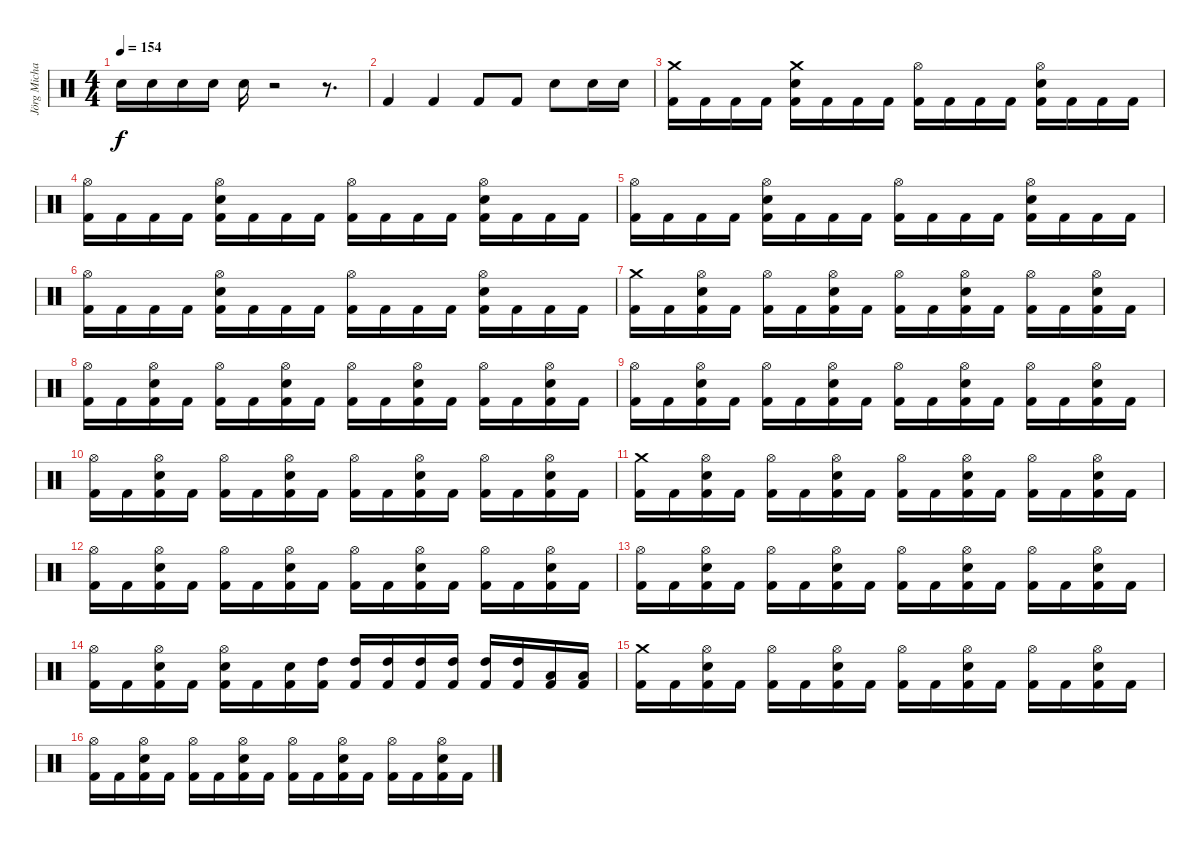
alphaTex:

\track ("Jörg Michael" "Jörg Micha") {instrument percussion}
\staff {score}
\articulation defaults
\ts (4 4)
\tempo 154
\clef neutral
\ks c "Snare (hit) 2".16{dy f} "Snare (hit) 2".16 "Snare (hit) 2".16 "Snare (hit) 2".16 "Snare (hit) 2".16
r.2 r.8{d} |
"Kick (hit) 2".4 "Kick (hit) 2".4 "Kick (hit) 2".8 "Kick (hit) 2".8 "Snare (hit) 2".8 "Snare (hit) 2".16 "Snare (hit) 2".16 |
("Crash medium (hit)" "Kick (hit) 2").16 "Kick (hit) 2".16 "Kick (hit) 2".16 "Kick (hit) 2".16 ("Crash medium (hit)" "Kick (hit) 2" "Snare (hit) 2").16 "Kick (hit) 2".16 "Kick (hit) 2".16 "Kick (hit) 2".16 ("Kick (hit) 2" "Hi-Hat (open)").16 "Kick (hit) 2".16 "Kick (hit) 2".16 "Kick (hit) 2".16 ("Kick (hit) 2" "Snare (hit) 2" "Hi-Hat (open)").16 "Kick (hit) 2".16 "Kick (hit) 2".16 "Kick (hit) 2".16 |
("Hi-Hat (open)" "Kick (hit) 2").16 "Kick (hit) 2".16 "Kick (hit) 2".16 "Kick (hit) 2".16 ("Hi-Hat (open)" "Kick (hit) 2" "Snare (hit) 2").16 "Kick (hit) 2".16 "Kick (hit) 2".16 "Kick (hit) 2".16 ("Kick (hit) 2" "Hi-Hat (open)").16 "Kick (hit) 2".16 "Kick (hit) 2".16 "Kick (hit) 2".16 ("Kick (hit) 2" "Snare (hit) 2" "Hi-Hat (open)").16 "Kick (hit) 2".16 "Kick (hit) 2".16 "Kick (hit) 2".16 |
("Hi-Hat (open)" "Kick (hit) 2").16 "Kick (hit) 2".16 "Kick (hit) 2".16 "Kick (hit) 2".16 ("Hi-Hat (open)" "Kick (hit) 2" "Snare (hit) 2").16 "Kick (hit) 2".16 "Kick (hit) 2".16 "Kick (hit) 2".16 ("Kick (hit) 2" "Hi-Hat (open)").16 "Kick (hit) 2".16 "Kick (hit) 2".16 "Kick (hit) 2".16 ("Kick (hit) 2" "Snare (hit) 2" "Hi-Hat (open)").16 "Kick (hit) 2".16 "Kick (hit) 2".16 "Kick (hit) 2".16 |
("Hi-Hat (open)" "Kick (hit) 2").16 "Kick (hit) 2".16 "Kick (hit) 2".16 "Kick (hit) 2".16 ("Hi-Hat (open)" "Kick (hit) 2" "Snare (hit) 2").16 "Kick (hit) 2".16 "Kick (hit) 2".16 "Kick (hit) 2".16 ("Kick (hit) 2" "Hi-Hat (open)").16 "Kick (hit) 2".16 "Kick (hit) 2".16 "Kick (hit) 2".16 ("Kick (hit) 2" "Snare (hit) 2" "Hi-Hat (open)").16 "Kick (hit) 2".16 "Kick (hit) 2".16 "Kick (hit) 2".16 |
("Crash medium (hit)" "Kick (hit) 2").16 "Kick (hit) 2".16 ("Snare (hit) 2" "Hi-Hat (open)" "Kick (hit) 2").16 "Kick (hit) 2".16 ("Hi-Hat (open)" "Kick (hit) 2").16 "Kick (hit) 2".16 ("Snare (hit) 2" "Hi-Hat (open)" "Kick (hit) 2").16 "Kick (hit) 2".16 ("Hi-Hat (open)" "Kick (hit) 2").16 "Kick (hit) 2".16 ("Snare (hit) 2" "Hi-Hat (open)" "Kick (hit) 2").16 "Kick (hit) 2".16 ("Hi-Hat (open)" "Kick (hit) 2").16 "Kick (hit) 2".16 ("Snare (hit) 2" "Hi-Hat (open)" "Kick (hit) 2").16 "Kick (hit) 2".16 |
("Hi-Hat (open)" "Kick (hit) 2").16 "Kick (hit) 2".16 ("Snare (hit) 2" "Hi-Hat (open)" "Kick (hit) 2").16 "Kick (hit) 2".16 ("Hi-Hat (open)" "Kick (hit) 2").16 "Kick (hit) 2".16 ("Snare (hit) 2" "Hi-Hat (open)" "Kick (hit) 2").16 "Kick (hit) 2".16 ("Hi-Hat (open)" "Kick (hit) 2").16 "Kick (hit) 2".16 ("Snare (hit) 2" "Hi-Hat (open)" "Kick (hit) 2").16 "Kick (hit) 2".16 ("Hi-Hat (open)" "Kick (hit) 2").16 "Kick (hit) 2".16 ("Snare (hit) 2" "Hi-Hat (open)" "Kick (hit) 2").16 "Kick (hit) 2".16 |
("Hi-Hat (open)" "Kick (hit) 2").16 "Kick (hit) 2".16 ("Snare (hit) 2" "Hi-Hat (open)" "Kick (hit) 2").16 "Kick (hit) 2".16 ("Hi-Hat (open)" "Kick (hit) 2").16 "Kick (hit) 2".16 ("Snare (hit) 2" "Hi-Hat (open)" "Kick (hit) 2").16 "Kick (hit) 2".16 ("Hi-Hat (open)" "Kick (hit) 2").16 "Kick (hit) 2".16 ("Snare (hit) 2" "Hi-Hat (open)" "Kick (hit) 2").16 "Kick (hit) 2".16 ("Hi-Hat (open)" "Kick (hit) 2").16 "Kick (hit) 2".16 ("Snare (hit) 2" "Hi-Hat (open)" "Kick (hit) 2").16 "Kick (hit) 2".16 |
("Hi-Hat (open)" "Kick (hit) 2").16 "Kick (hit) 2".16 ("Snare (hit) 2" "Hi-Hat (open)" "Kick (hit) 2").16 "Kick (hit) 2".16 ("Hi-Hat (open)" "Kick (hit) 2").16 "Kick (hit) 2".16 ("Snare (hit) 2" "Hi-Hat (open)" "Kick (hit) 2").16 "Kick (hit) 2".16 ("Hi-Hat (open)" "Kick (hit) 2").16 "Kick (hit) 2".16 ("Snare (hit) 2" "Hi-Hat (open)" "Kick (hit) 2").16 "Kick (hit) 2".16 ("Hi-Hat (open)" "Kick (hit) 2").16 "Kick (hit) 2".16 ("Snare (hit) 2" "Hi-Hat (open)" "Kick (hit) 2").16 "Kick (hit) 2".16 |
("Crash medium (hit)" "Kick (hit) 2").16 "Kick (hit) 2".16 ("Snare (hit) 2" "Hi-Hat (open)" "Kick (hit) 2").16 "Kick (hit) 2".16 ("Hi-Hat (open)" "Kick (hit) 2").16 "Kick (hit) 2".16 ("Snare (hit) 2" "Hi-Hat (open)" "Kick (hit) 2").16 "Kick (hit) 2".16 ("Hi-Hat (open)" "Kick (hit) 2").16 "Kick (hit) 2".16 ("Snare (hit) 2" "Hi-Hat (open)" "Kick (hit) 2").16 "Kick (hit) 2".16 ("Hi-Hat (open)" "Kick (hit) 2").16 "Kick (hit) 2".16 ("Snare (hit) 2" "Hi-Hat (open)" "Kick (hit) 2").16 "Kick (hit) 2".16 |
("Hi-Hat (open)" "Kick (hit) 2").16 "Kick (hit) 2".16 ("Snare (hit) 2" "Hi-Hat (open)" "Kick (hit) 2").16 "Kick (hit) 2".16 ("Hi-Hat (open)" "Kick (hit) 2").16 "Kick (hit) 2".16 ("Snare (hit) 2" "Hi-Hat (open)" "Kick (hit) 2").16 "Kick (hit) 2".16 ("Hi-Hat (open)" "Kick (hit) 2").16 "Kick (hit) 2".16 ("Snare (hit) 2" "Hi-Hat (open)" "Kick (hit) 2").16 "Kick (hit) 2".16 ("Hi-Hat (open)" "Kick (hit) 2").16 "Kick (hit) 2".16 ("Snare (hit) 2" "Hi-Hat (open)" "Kick (hit) 2").16 "Kick (hit) 2".16 |
("Hi-Hat (open)" "Kick (hit) 2").16 "Kick (hit) 2".16 ("Snare (hit) 2" "Hi-Hat (open)" "Kick (hit) 2").16 "Kick (hit) 2".16 ("Hi-Hat (open)" "Kick (hit) 2").16 "Kick (hit) 2".16 ("Snare (hit) 2" "Hi-Hat (open)" "Kick (hit) 2").16 "Kick (hit) 2".16 ("Hi-Hat (open)" "Kick (hit) 2").16 "Kick (hit) 2".16 ("Snare (hit) 2" "Hi-Hat (open)" "Kick (hit) 2").16 "Kick (hit) 2".16 ("Hi-Hat (open)" "Kick (hit) 2").16 "Kick (hit) 2".16 ("Snare (hit) 2" "Hi-Hat (open)" "Kick (hit) 2").16 "Kick (hit) 2".16 |
("Hi-Hat (open)" "Kick (hit) 2").16 "Kick (hit) 2".16 ("Snare (hit) 2" "Hi-Hat (open)" "Kick (hit) 2").16 "Kick (hit) 2".16 ("Snare (hit) 2" "Hi-Hat (open)" "Kick (hit) 2").16 "Kick (hit) 2".16 ("Snare (hit) 2" "Kick (hit) 2").16 ("High Tom (hit)" "Kick (hit) 2").16 ("High Tom (hit)" "Kick (hit) 2").16 ("High Tom (hit)" "Kick (hit) 2").16 ("High Tom (hit)" "Kick (hit) 2").16 ("High Tom (hit)" "Kick (hit) 2").16 ("High Tom (hit)" "Kick (hit) 2").16 ("High Tom (hit)" "Kick (hit) 2").16 ("Low Tom (hit)" "Kick (hit) 2").16 ("Low Tom (hit)" "Kick (hit) 2").16 |
("Crash medium (hit)" "Kick (hit) 2").16 "Kick (hit) 2".16 ("Snare (hit) 2" "Hi-Hat (open)" "Kick (hit) 2").16 "Kick (hit) 2".16 ("Hi-Hat (open)" "Kick (hit) 2").16 "Kick (hit) 2".16 ("Snare (hit) 2" "Hi-Hat (open)" "Kick (hit) 2").16 "Kick (hit) 2".16 ("Hi-Hat (open)" "Kick (hit) 2").16 "Kick (hit) 2".16 ("Snare (hit) 2" "Hi-Hat (open)" "Kick (hit) 2").16 "Kick (hit) 2".16 ("Hi-Hat (open)" "Kick (hit) 2").16 "Kick (hit) 2".16 ("Snare (hit) 2" "Hi-Hat (open)" "Kick (hit) 2").16 "Kick (hit) 2".16 |
("Hi-Hat (open)" "Kick (hit) 2").16 "Kick (hit) 2".16 ("Snare (hit) 2" "Hi-Hat (open)" "Kick (hit) 2").16 "Kick (hit) 2".16 ("Hi-Hat (open)" "Kick (hit) 2").16 "Kick (hit) 2".16 ("Snare (hit) 2" "Hi-Hat (open)" "Kick (hit) 2").16 "Kick (hit) 2".16 ("Hi-Hat (open)" "Kick (hit) 2").16 "Kick (hit) 2".16 ("Snare (hit) 2" "Hi-Hat (open)" "Kick (hit) 2").16 "Kick (hit) 2".16 ("Hi-Hat (open)" "Kick (hit) 2").16 "Kick (hit) 2".16 ("Snare (hit) 2" "Hi-Hat (open)" "Kick (hit) 2").16 "Kick (hit) 2".16
